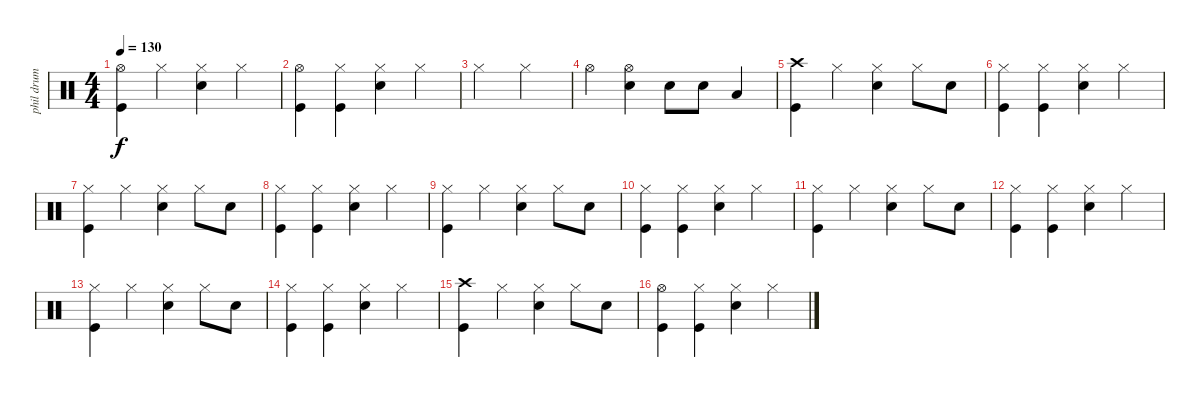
\track ("phil drum" "phil drum") {instrument percussion}
\staff {score}
\articulation defaults
\ts (4 4)
\tempo 130
\clef neutral
\ks c
("Hi-Hat (open)" "Kick (hit)").4{dy f} "Hi-Hat (closed)".4 ("Hi-Hat (closed)" "Snare (hit) 2").4 "Hi-Hat (closed)".4 |
("Hi-Hat (open)" "Kick (hit)").4 ("Hi-Hat (closed)" "Kick (hit)").4 ("Hi-Hat (closed)" "Snare (hit) 2").4 "Hi-Hat (closed)".4 |
"Hi-Hat (closed)".2 "Hi-Hat (closed)".2 |
"Hi-Hat (open)".4 ("Hi-Hat (open)" "Electric Snare (hit)").4 "Snare (hit) 2".8 "Snare (hit) 2".8 "Low Tom (hit)".4 |
("Crash high (hit)" "Kick (hit)").4 "Hi-Hat (closed)".4 ("Hi-Hat (closed)" "Snare (hit) 2").4 "Hi-Hat (closed)".8 "Snare (hit) 2".8 |
("Hi-Hat (closed)" "Kick (hit)").4 ("Hi-Hat (closed)" "Kick (hit)").4 ("Hi-Hat (closed)" "Snare (hit) 2").4 "Hi-Hat (closed)".4 |
("Hi-Hat (closed)" "Kick (hit)").4 "Hi-Hat (closed)".4 ("Hi-Hat (closed)" "Snare (hit) 2").4 "Hi-Hat (closed)".8 "Snare (hit) 2".8 |
("Hi-Hat (closed)" "Kick (hit)").4 ("Hi-Hat (closed)" "Kick (hit)").4 ("Hi-Hat (closed)" "Snare (hit) 2").4 "Hi-Hat (closed)".4 |
("Hi-Hat (closed)" "Kick (hit)").4 "Hi-Hat (closed)".4 ("Hi-Hat (closed)" "Snare (hit) 2").4 "Hi-Hat (closed)".8 "Snare (hit) 2".8 |
("Hi-Hat (closed)" "Kick (hit)").4 ("Hi-Hat (closed)" "Kick (hit)").4 ("Hi-Hat (closed)" "Snare (hit) 2").4 "Hi-Hat (closed)".4 |
("Hi-Hat (closed)" "Kick (hit)").4 "Hi-Hat (closed)".4 ("Hi-Hat (closed)" "Snare (hit) 2").4 "Hi-Hat (closed)".8 "Snare (hit) 2".8 |
("Hi-Hat (closed)" "Kick (hit)").4 ("Hi-Hat (closed)" "Kick (hit)").4 ("Hi-Hat (closed)" "Snare (hit) 2").4 "Hi-Hat (closed)".4 |
("Hi-Hat (closed)" "Kick (hit)").4 "Hi-Hat (closed)".4 ("Hi-Hat (closed)" "Snare (hit) 2").4 "Hi-Hat (closed)".8 "Snare (hit) 2".8 |
("Hi-Hat (closed)" "Kick (hit)").4 ("Hi-Hat (closed)" "Kick (hit)").4 ("Hi-Hat (closed)" "Snare (hit) 2").4 "Hi-Hat (closed)".4 |
("Crash high (hit)" "Kick (hit)").4 "Hi-Hat (closed)".4 ("Hi-Hat (closed)" "Snare (hit) 2").4 "Hi-Hat (closed)".8 "Snare (hit) 2".8 |
("Hi-Hat (open)" "Kick (hit)").4 ("Hi-Hat (closed)" "Kick (hit)").4 ("Hi-Hat (closed)" "Snare (hit) 2").4 "Hi-Hat (closed)".4
